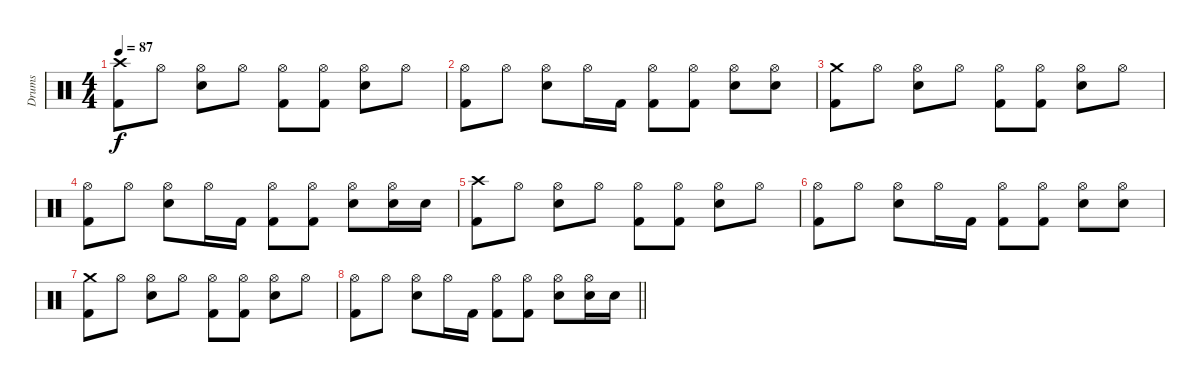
\track ("Drums" "Drums") {instrument percussion}
\staff {score}
\articulation defaults
\ts (4 4)
\tempo 87
\clef neutral
\ks c
("Crash high (hit)" "Kick (hit) 2").8{dy f} "Hi-Hat (open)".8 ("Hi-Hat (open)" "Snare (hit) 2").8 "Hi-Hat (open)".8 ("Hi-Hat (open)" "Kick (hit) 2").8 ("Hi-Hat (open)" "Kick (hit) 2").8 ("Hi-Hat (open)" "Snare (hit) 2").8 "Hi-Hat (open)".8 |
("Hi-Hat (open)" "Kick (hit) 2").8 "Hi-Hat (open)".8 ("Hi-Hat (open)" "Snare (hit) 2").8 "Hi-Hat (open)".16 "Kick (hit) 2".16 ("Hi-Hat (open)" "Kick (hit) 2").8 ("Hi-Hat (open)" "Kick (hit) 2").8 ("Hi-Hat (open)" "Snare (hit) 2").8 ("Hi-Hat (open)" "Snare (hit) 2").8 |
("Crash medium (hit)" "Kick (hit) 2").8 "Hi-Hat (open)".8 ("Hi-Hat (open)" "Snare (hit) 2").8 "Hi-Hat (open)".8 ("Hi-Hat (open)" "Kick (hit) 2").8 ("Hi-Hat (open)" "Kick (hit) 2").8 ("Hi-Hat (open)" "Snare (hit) 2").8 "Hi-Hat (open)".8 |
("Hi-Hat (open)" "Kick (hit) 2").8 "Hi-Hat (open)".8 ("Hi-Hat (open)" "Snare (hit) 2").8 "Hi-Hat (open)".16 "Kick (hit) 2".16 ("Hi-Hat (open)" "Kick (hit) 2").8 ("Hi-Hat (open)" "Kick (hit) 2").8 ("Hi-Hat (open)" "Snare (hit) 2").8 ("Hi-Hat (open)" "Snare (hit) 2").16 "Snare (hit) 2".16 |
("Crash high (hit)" "Kick (hit) 2").8 "Hi-Hat (open)".8 ("Hi-Hat (open)" "Snare (hit) 2").8 "Hi-Hat (open)".8 ("Hi-Hat (open)" "Kick (hit) 2").8 ("Hi-Hat (open)" "Kick (hit) 2").8 ("Hi-Hat (open)" "Snare (hit) 2").8 "Hi-Hat (open)".8 |
("Hi-Hat (open)" "Kick (hit) 2").8 "Hi-Hat (open)".8 ("Hi-Hat (open)" "Snare (hit) 2").8 "Hi-Hat (open)".16 "Kick (hit) 2".16 ("Hi-Hat (open)" "Kick (hit) 2").8 ("Hi-Hat (open)" "Kick (hit) 2").8 ("Hi-Hat (open)" "Snare (hit) 2").8 ("Hi-Hat (open)" "Snare (hit) 2").8 |
("Crash medium (hit)" "Kick (hit) 2").8 "Hi-Hat (open)".8 ("Hi-Hat (open)" "Snare (hit) 2").8 "Hi-Hat (open)".8 ("Hi-Hat (open)" "Kick (hit) 2").8 ("Hi-Hat (open)" "Kick (hit) 2").8 ("Hi-Hat (open)" "Snare (hit) 2").8 "Hi-Hat (open)".8 |
\barLineRight lightlight
("Hi-Hat (open)" "Kick (hit) 2").8 "Hi-Hat (open)".8 ("Hi-Hat (open)" "Snare (hit) 2").8 "Hi-Hat (open)".16 "Kick (hit) 2".16 ("Hi-Hat (open)" "Kick (hit) 2").8 ("Hi-Hat (open)" "Kick (hit) 2").8 ("Hi-Hat (open)" "Snare (hit) 2").8 ("Hi-Hat (open)" "Snare (hit) 2").16 "Snare (hit) 2".16
